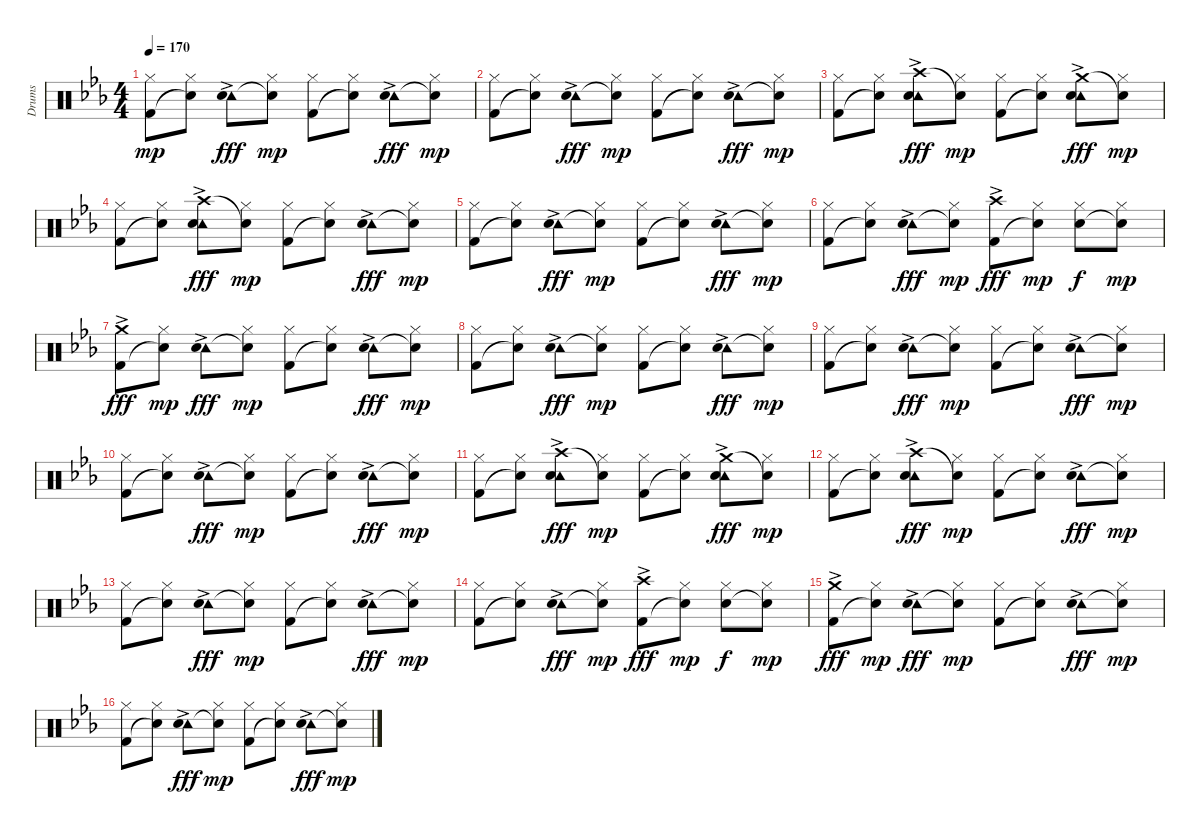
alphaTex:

\track ("Drums" "Drums") {instrument percussion}
\staff {score}
\articulation defaults
\ts (4 4)
\tempo 170
\clef neutral
\ks cminor
("Hi-Hat (closed)" "Kick (hit) 2").8{dy mp} ("Hi-Hat (closed)" "Snare (hit)"{t}).8 ("Tambourine (hit)"{ac} "Hand Clap (hit)").8{dy fff} ("Hi-Hat (closed)" "Snare (hit)"{t}).8{dy mp} ("Hi-Hat (closed)" "Kick (hit) 2").8 ("Hi-Hat (closed)" "Snare (hit)"{t}).8 ("Tambourine (hit)"{ac} "Hand Clap (hit)").8{dy fff} ("Hi-Hat (closed)" "Snare (hit)"{t}).8{dy mp} |
("Hi-Hat (closed)" "Kick (hit) 2").8 ("Hi-Hat (closed)" "Snare (hit)"{t}).8 ("Tambourine (hit)"{ac} "Hand Clap (hit)").8{dy fff} ("Hi-Hat (closed)" "Snare (hit)"{t}).8{dy mp} ("Hi-Hat (closed)" "Kick (hit) 2").8 ("Hi-Hat (closed)" "Snare (hit)"{t}).8 ("Tambourine (hit)"{ac} "Hand Clap (hit)").8{dy fff} ("Hi-Hat (closed)" "Snare (hit)"{t}).8{dy mp} |
("Hi-Hat (closed)" "Kick (hit) 2").8 ("Hi-Hat (closed)" "Snare (hit)"{t}).8 ("Tambourine (hit)"{ac} "Crash high (hit)"{ac} "Hand Clap (hit)").8{dy fff} ("Hi-Hat (closed)" "Snare (hit)"{t}).8{dy mp} ("Hi-Hat (closed)" "Kick (hit) 2").8 ("Hi-Hat (closed)" "Snare (hit)"{t}).8 ("Tambourine (hit)"{ac} "Crash medium (hit)"{ac} "Hand Clap (hit)").8{dy fff} ("Hi-Hat (closed)" "Snare (hit)"{t}).8{dy mp} |
("Hi-Hat (closed)" "Kick (hit) 2").8 ("Hi-Hat (closed)" "Snare (hit)"{t}).8 ("Tambourine (hit)"{ac} "Crash high (hit)"{ac} "Hand Clap (hit)").8{dy fff} ("Hi-Hat (closed)" "Snare (hit)"{t}).8{dy mp} ("Hi-Hat (closed)" "Kick (hit) 2").8 ("Hi-Hat (closed)" "Snare (hit)"{t}).8 ("Tambourine (hit)"{ac} "Hand Clap (hit)").8{dy fff} ("Hi-Hat (closed)" "Snare (hit)"{t}).8{dy mp} |
("Hi-Hat (closed)" "Kick (hit) 2").8 ("Hi-Hat (closed)" "Snare (hit)"{t}).8 ("Tambourine (hit)"{ac} "Hand Clap (hit)").8{dy fff} ("Hi-Hat (closed)" "Snare (hit)"{t}).8{dy mp} ("Hi-Hat (closed)" "Kick (hit) 2").8 ("Hi-Hat (closed)" "Snare (hit)"{t}).8 ("Tambourine (hit)"{ac} "Hand Clap (hit)").8{dy fff} ("Hi-Hat (closed)" "Snare (hit)"{t}).8{dy mp} |
("Hi-Hat (closed)" "Kick (hit) 2").8 ("Hi-Hat (closed)" "Snare (hit)"{t}).8 ("Tambourine (hit)"{ac} "Hand Clap (hit)").8{dy fff} ("Hi-Hat (closed)" "Snare (hit)"{t}).8{dy mp} ("Crash high (hit)"{ac} "Kick (hit) 2").8{dy fff} ("Hi-Hat (closed)" "Snare (hit)"{t}).8{dy mp} ("Hi-Hat (closed)" "Hand Clap (hit)").8{dy f} ("Hi-Hat (closed)" "Snare (hit)"{t}).8{dy mp} |
("Crash medium (hit)"{ac} "Kick (hit) 2").8{dy fff} ("Hi-Hat (closed)" "Snare (hit)"{t}).8{dy mp} ("Tambourine (hit)"{ac} "Hand Clap (hit)").8{dy fff} ("Hi-Hat (closed)" "Snare (hit)"{t}).8{dy mp} ("Hi-Hat (closed)" "Kick (hit) 2").8 ("Hi-Hat (closed)" "Snare (hit)"{t}).8 ("Tambourine (hit)"{ac} "Hand Clap (hit)").8{dy fff} ("Hi-Hat (closed)" "Snare (hit)"{t}).8{dy mp} |
("Hi-Hat (closed)" "Kick (hit) 2").8 ("Hi-Hat (closed)" "Snare (hit)"{t}).8 ("Tambourine (hit)"{ac} "Hand Clap (hit)").8{dy fff} ("Hi-Hat (closed)" "Snare (hit)"{t}).8{dy mp} ("Hi-Hat (closed)" "Kick (hit) 2").8 ("Hi-Hat (closed)" "Snare (hit)"{t}).8 ("Tambourine (hit)"{ac} "Hand Clap (hit)").8{dy fff} ("Hi-Hat (closed)" "Snare (hit)"{t}).8{dy mp} |
("Hi-Hat (closed)" "Kick (hit) 2").8 ("Hi-Hat (closed)" "Snare (hit)"{t}).8 ("Tambourine (hit)"{ac} "Hand Clap (hit)").8{dy fff} ("Hi-Hat (closed)" "Snare (hit)"{t}).8{dy mp} ("Hi-Hat (closed)" "Kick (hit) 2").8 ("Hi-Hat (closed)" "Snare (hit)"{t}).8 ("Tambourine (hit)"{ac} "Hand Clap (hit)").8{dy fff} ("Hi-Hat (closed)" "Snare (hit)"{t}).8{dy mp} |
("Hi-Hat (closed)" "Kick (hit) 2").8 ("Hi-Hat (closed)" "Snare (hit)"{t}).8 ("Tambourine (hit)"{ac} "Hand Clap (hit)").8{dy fff} ("Hi-Hat (closed)" "Snare (hit)"{t}).8{dy mp} ("Hi-Hat (closed)" "Kick (hit) 2").8 ("Hi-Hat (closed)" "Snare (hit)"{t}).8 ("Tambourine (hit)"{ac} "Hand Clap (hit)").8{dy fff} ("Hi-Hat (closed)" "Snare (hit)"{t}).8{dy mp} |
("Hi-Hat (closed)" "Kick (hit) 2").8 ("Hi-Hat (closed)" "Snare (hit)"{t}).8 ("Tambourine (hit)"{ac} "Crash high (hit)"{ac} "Hand Clap (hit)").8{dy fff} ("Hi-Hat (closed)" "Snare (hit)"{t}).8{dy mp} ("Hi-Hat (closed)" "Kick (hit) 2").8 ("Hi-Hat (closed)" "Snare (hit)"{t}).8 ("Tambourine (hit)"{ac} "Crash medium (hit)"{ac} "Hand Clap (hit)").8{dy fff} ("Hi-Hat (closed)" "Snare (hit)"{t}).8{dy mp} |
("Hi-Hat (closed)" "Kick (hit) 2").8 ("Hi-Hat (closed)" "Snare (hit)"{t}).8 ("Tambourine (hit)"{ac} "Crash high (hit)"{ac} "Hand Clap (hit)").8{dy fff} ("Hi-Hat (closed)" "Snare (hit)"{t}).8{dy mp} ("Hi-Hat (closed)" "Kick (hit) 2").8 ("Hi-Hat (closed)" "Snare (hit)"{t}).8 ("Tambourine (hit)"{ac} "Hand Clap (hit)").8{dy fff} ("Hi-Hat (closed)" "Snare (hit)"{t}).8{dy mp} |
("Hi-Hat (closed)" "Kick (hit) 2").8 ("Hi-Hat (closed)" "Snare (hit)"{t}).8 ("Tambourine (hit)"{ac} "Hand Clap (hit)").8{dy fff} ("Hi-Hat (closed)" "Snare (hit)"{t}).8{dy mp} ("Hi-Hat (closed)" "Kick (hit) 2").8 ("Hi-Hat (closed)" "Snare (hit)"{t}).8 ("Tambourine (hit)"{ac} "Hand Clap (hit)").8{dy fff} ("Hi-Hat (closed)" "Snare (hit)"{t}).8{dy mp} |
("Hi-Hat (closed)" "Kick (hit) 2").8 ("Hi-Hat (closed)" "Snare (hit)"{t}).8 ("Tambourine (hit)"{ac} "Hand Clap (hit)").8{dy fff} ("Hi-Hat (closed)" "Snare (hit)"{t}).8{dy mp} ("Crash high (hit)"{ac} "Kick (hit) 2").8{dy fff} ("Hi-Hat (closed)" "Snare (hit)"{t}).8{dy mp} ("Hi-Hat (closed)" "Hand Clap (hit)").8{dy f} ("Hi-Hat (closed)" "Snare (hit)"{t}).8{dy mp} |
("Crash medium (hit)"{ac} "Kick (hit) 2").8{dy fff} ("Hi-Hat (closed)" "Snare (hit)"{t}).8{dy mp} ("Tambourine (hit)"{ac} "Hand Clap (hit)").8{dy fff} ("Hi-Hat (closed)" "Snare (hit)"{t}).8{dy mp} ("Hi-Hat (closed)" "Kick (hit) 2").8 ("Hi-Hat (closed)" "Snare (hit)"{t}).8 ("Tambourine (hit)"{ac} "Hand Clap (hit)").8{dy fff} ("Hi-Hat (closed)" "Snare (hit)"{t}).8{dy mp} |
("Hi-Hat (closed)" "Kick (hit) 2").8 ("Hi-Hat (closed)" "Snare (hit)"{t}).8 ("Tambourine (hit)"{ac} "Hand Clap (hit)").8{dy fff} ("Hi-Hat (closed)" "Snare (hit)"{t}).8{dy mp} ("Hi-Hat (closed)" "Kick (hit) 2").8 ("Hi-Hat (closed)" "Snare (hit)"{t}).8 ("Tambourine (hit)"{ac} "Hand Clap (hit)").8{dy fff} ("Hi-Hat (closed)" "Snare (hit)"{t}).8{dy mp}
